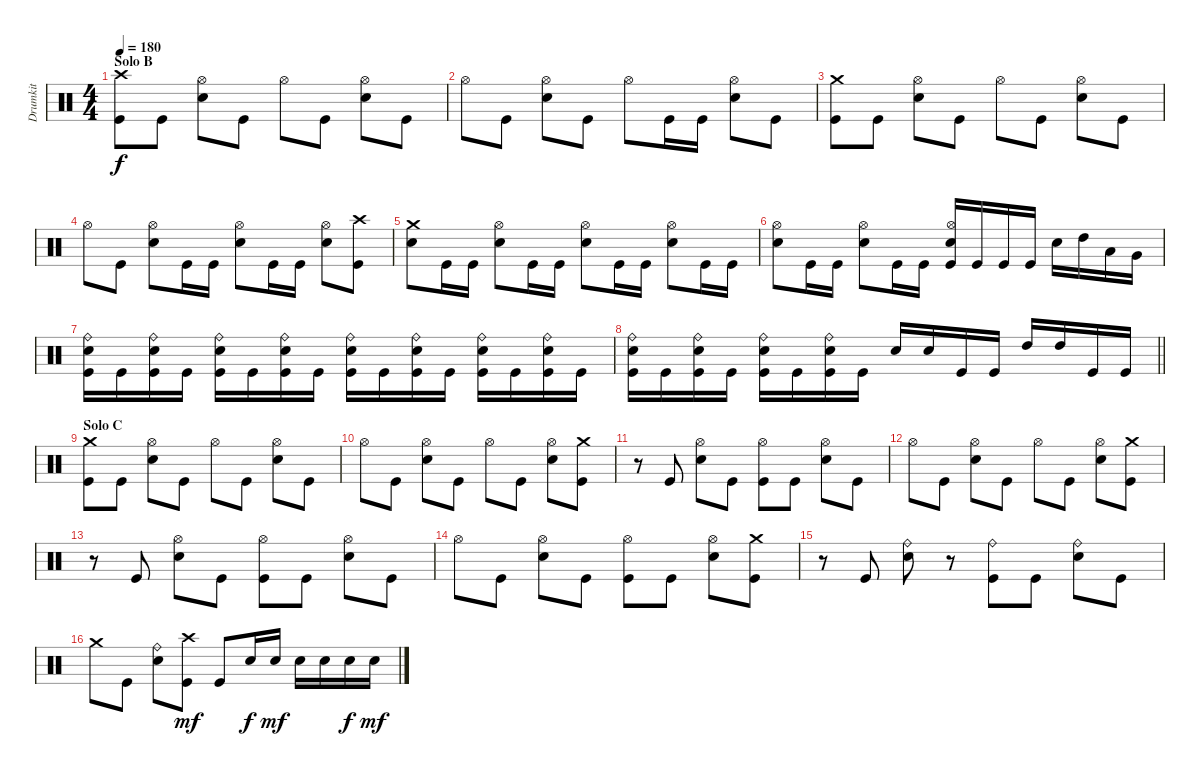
\track ("Drumkit" "Drumkit") {instrument percussion}
\staff {score}
\articulation defaults
\ts (4 4)
\section ("" "Solo B")
\tempo 180
\clef neutral
\ks c
("Crash high (hit)" "Kick (hit)").8{dy f} "Kick (hit)".8 ("Hi-Hat (open)" "Snare (hit) 2").8 "Kick (hit)".8 "Hi-Hat (open)".8 "Kick (hit)".8 ("Hi-Hat (open)" "Snare (hit) 2").8 "Kick (hit)".8 |
"Hi-Hat (open)".8 "Kick (hit)".8 ("Hi-Hat (open)" "Snare (hit) 2").8 "Kick (hit)".8 "Hi-Hat (open)".8 "Kick (hit)".16 "Kick (hit)".16 ("Hi-Hat (open)" "Snare (hit) 2").8 "Kick (hit)".8 |
("Crash medium (hit)" "Kick (hit)").8 "Kick (hit)".8 ("Hi-Hat (open)" "Snare (hit) 2").8 "Kick (hit)".8 "Hi-Hat (open)".8 "Kick (hit)".8 ("Hi-Hat (open)" "Snare (hit) 2").8 "Kick (hit)".8 |
"Hi-Hat (open)".8 "Kick (hit)".8 ("Hi-Hat (open)" "Snare (hit) 2").8 "Kick (hit)".16 "Kick (hit)".16 ("Hi-Hat (open)" "Snare (hit) 2").8 "Kick (hit)".16 "Kick (hit)".16 ("Hi-Hat (open)" "Snare (hit) 2").8 ("Crash high (hit)" "Kick (hit)").8 |
("Crash medium (hit)" "Snare (hit) 2").8 "Kick (hit)".16 "Kick (hit)".16 ("Hi-Hat (open)" "Snare (hit) 2").8 "Kick (hit)".16 "Kick (hit)".16 ("Hi-Hat (open)" "Snare (hit) 2").8 "Kick (hit)".16 "Kick (hit)".16 ("Hi-Hat (open)" "Snare (hit) 2").8 "Kick (hit)".16 "Kick (hit)".16 |
("Hi-Hat (open)" "Snare (hit) 2").8 "Kick (hit)".16 "Kick (hit)".16 ("Hi-Hat (open)" "Snare (hit) 2").8 "Kick (hit)".16 "Kick (hit)".16 ("Hi-Hat (open)" "Snare (hit) 2" "Kick (hit)").16 "Kick (hit)".16 "Kick (hit)".16 "Kick (hit)".16 "Snare (hit) 2".16 "High Tom (hit)".16 "Low Tom (hit)".16 "Very Low Tom (hit)".16 |
("Ride (bell)" "Snare (hit) 2" "Kick (hit)").16 "Kick (hit)".16 ("Ride (bell)" "Snare (hit) 2" "Kick (hit)").16 "Kick (hit)".16 ("Ride (bell)" "Snare (hit) 2" "Kick (hit)").16 "Kick (hit)".16 ("Ride (bell)" "Snare (hit) 2" "Kick (hit)").16 "Kick (hit)".16 ("Ride (bell)" "Snare (hit) 2" "Kick (hit)").16 "Kick (hit)".16 ("Ride (bell)" "Snare (hit) 2" "Kick (hit)").16 "Kick (hit)".16 ("Ride (bell)" "Snare (hit) 2" "Kick (hit)").16 "Kick (hit)".16 ("Ride (bell)" "Snare (hit) 2" "Kick (hit)").16 "Kick (hit)".16 |
\barLineRight lightlight
("Ride (bell)" "Snare (hit) 2" "Kick (hit)").16 "Kick (hit)".16 ("Ride (bell)" "Snare (hit) 2" "Kick (hit)").16 "Kick (hit)".16 ("Ride (bell)" "Snare (hit) 2" "Kick (hit)").16 "Kick (hit)".16 ("Ride (bell)" "Snare (hit) 2" "Kick (hit)").16 "Kick (hit)".16 "Snare (hit) 2".16 "Snare (hit) 2".16 "Kick (hit)".16 "Kick (hit)".16 "High Tom (hit)".16 "High Tom (hit)".16 "Kick (hit)".16 "Kick (hit)".16 |
\section ("" "Solo C")
("Crash medium (hit)" "Kick (hit)").8 "Kick (hit)".8 ("Hi-Hat (open)" "Snare (hit) 2").8 "Kick (hit)".8 "Hi-Hat (open)".8 "Kick (hit)".8 ("Hi-Hat (open)" "Snare (hit) 2").8 "Kick (hit)".8 |
"Hi-Hat (open)".8 "Kick (hit)".8 ("Hi-Hat (open)" "Snare (hit) 2").8 "Kick (hit)".8 "Hi-Hat (open)".8 "Kick (hit)".8 ("Hi-Hat (open)" "Snare (hit) 2").8 ("Crash medium (hit)" "Kick (hit)").8 |
r.8 "Kick (hit)".8 ("Hi-Hat (open)" "Snare (hit) 2").8 "Kick (hit)".8 ("Hi-Hat (open)" "Kick (hit)").8 "Kick (hit)".8 ("Hi-Hat (open)" "Snare (hit) 2").8 "Kick (hit)".8 |
"Hi-Hat (open)".8 "Kick (hit)".8 ("Hi-Hat (open)" "Snare (hit) 2").8 "Kick (hit)".8 "Hi-Hat (open)".8 "Kick (hit)".8 ("Hi-Hat (open)" "Snare (hit) 2").8 ("Crash medium (hit)" "Kick (hit)").8 |
r.8 "Kick (hit)".8 ("Hi-Hat (open)" "Snare (hit) 2").8 "Kick (hit)".8 ("Hi-Hat (open)" "Kick (hit)").8 "Kick (hit)".8 ("Hi-Hat (open)" "Snare (hit) 2").8 "Kick (hit)".8 |
"Hi-Hat (open)".8 "Kick (hit)".8 ("Hi-Hat (open)" "Snare (hit) 2").8 "Kick (hit)".8 ("Hi-Hat (open)" "Kick (hit)").8 "Kick (hit)".8 ("Hi-Hat (open)" "Snare (hit) 2").8 ("Crash medium (hit)" "Kick (hit)").8 |
r.8 "Kick (hit)".8 ("Ride (bell)" "Snare (hit) 2").8 r.8 ("Ride (bell)" "Kick (hit)").8 "Kick (hit)".8 ("Ride (bell)" "Snare (hit) 2").8 "Kick (hit)".8 |
"Crash medium (hit)".8 "Kick (hit)".8 ("Ride (bell)" "Snare (hit) 2").8 ("Crash high (hit)" "Kick (hit)").8{dy mf} "Kick (hit)".8 "Snare (hit) 2".16{dy f} "Snare (hit) 2".16{dy mf} "Snare (hit) 2".16 "Snare (hit) 2".16 "Snare (hit) 2".16{dy f} "Snare (hit) 2".16{dy mf}
